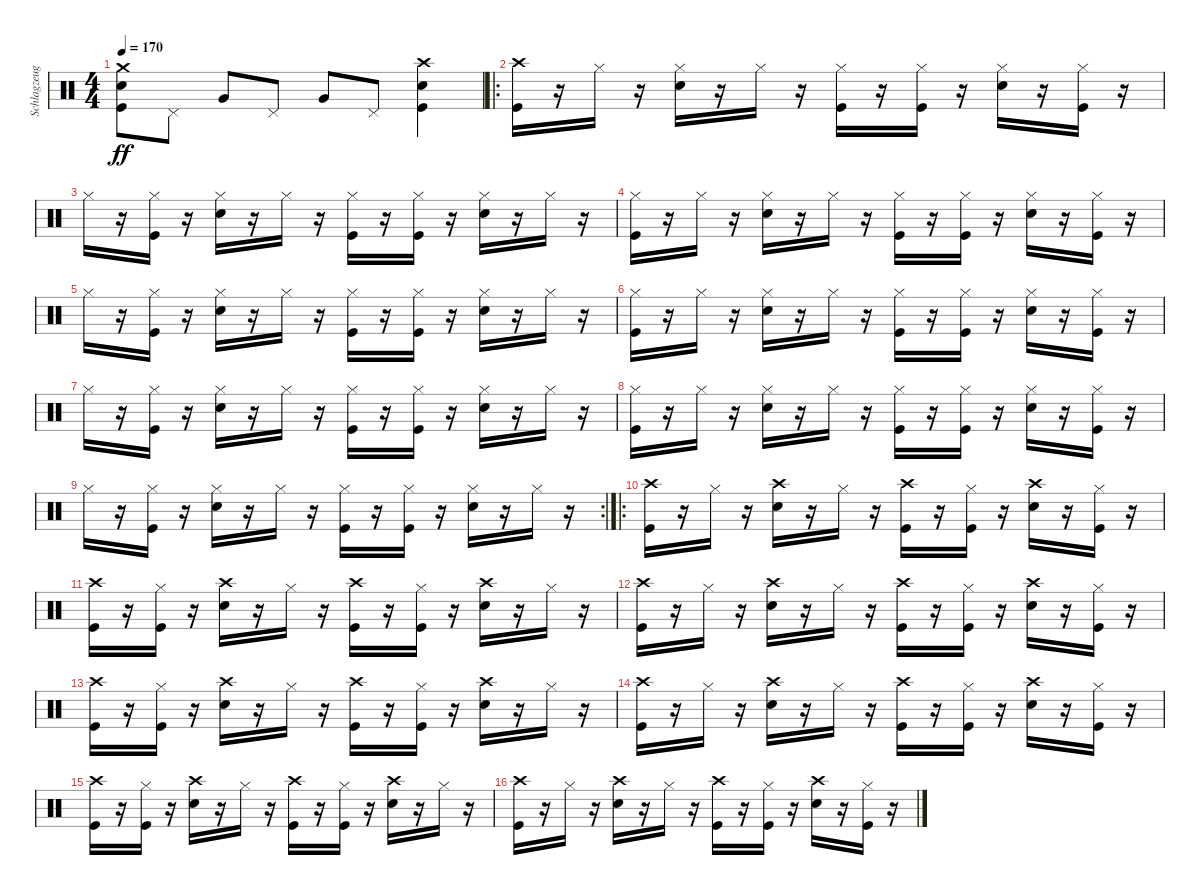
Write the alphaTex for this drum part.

\track ("Schlagzeug" "Schlagzeug") {instrument percussion}
\staff {score}
\articulation defaults
\ts (4 4)
\tempo 170
\clef neutral
\ks c
("Crash medium (hit)" "Snare (hit) 2" "Kick (hit)").8{dy ff} "Pedal Hi-Hat (hit)".8 "Very Low Tom (hit)".8 "Pedal Hi-Hat (hit)".8 "Very Low Tom (hit)".8 "Pedal Hi-Hat (hit)".8 ("Crash high (hit)" "Snare (hit) 2" "Kick (hit)").4 |
\ro
("Crash high (hit)" "Kick (hit)").16 r.16 "Hi-Hat (closed)".16 r.16 ("Hi-Hat (closed)" "Snare (hit) 2").16 r.16 "Hi-Hat (closed)".16 r.16 ("Hi-Hat (closed)" "Kick (hit)").16 r.16 ("Hi-Hat (closed)" "Kick (hit)").16 r.16 ("Hi-Hat (closed)" "Snare (hit) 2").16 r.16 ("Hi-Hat (closed)" "Kick (hit)").16 r.16 |
"Hi-Hat (closed)".16 r.16 ("Hi-Hat (closed)" "Kick (hit)").16 r.16 ("Hi-Hat (closed)" "Snare (hit) 2").16 r.16 "Hi-Hat (closed)".16 r.16 ("Hi-Hat (closed)" "Kick (hit)").16 r.16 ("Hi-Hat (closed)" "Kick (hit)").16 r.16 ("Hi-Hat (closed)" "Snare (hit) 2").16 r.16 "Hi-Hat (closed)".16 r.16 |
("Hi-Hat (closed)" "Kick (hit)").16 r.16 "Hi-Hat (closed)".16 r.16 ("Hi-Hat (closed)" "Snare (hit) 2").16 r.16 "Hi-Hat (closed)".16 r.16 ("Hi-Hat (closed)" "Kick (hit)").16 r.16 ("Hi-Hat (closed)" "Kick (hit)").16 r.16 ("Hi-Hat (closed)" "Snare (hit) 2").16 r.16 ("Hi-Hat (closed)" "Kick (hit)").16 r.16 |
"Hi-Hat (closed)".16 r.16 ("Hi-Hat (closed)" "Kick (hit)").16 r.16 ("Hi-Hat (closed)" "Snare (hit) 2").16 r.16 "Hi-Hat (closed)".16 r.16 ("Hi-Hat (closed)" "Kick (hit)").16 r.16 ("Hi-Hat (closed)" "Kick (hit)").16 r.16 ("Hi-Hat (closed)" "Snare (hit) 2").16 r.16 "Hi-Hat (closed)".16 r.16 |
("Hi-Hat (closed)" "Kick (hit)").16 r.16 "Hi-Hat (closed)".16 r.16 ("Hi-Hat (closed)" "Snare (hit) 2").16 r.16 "Hi-Hat (closed)".16 r.16 ("Hi-Hat (closed)" "Kick (hit)").16 r.16 ("Hi-Hat (closed)" "Kick (hit)").16 r.16 ("Hi-Hat (closed)" "Snare (hit) 2").16 r.16 ("Hi-Hat (closed)" "Kick (hit)").16 r.16 |
"Hi-Hat (closed)".16 r.16 ("Hi-Hat (closed)" "Kick (hit)").16 r.16 ("Hi-Hat (closed)" "Snare (hit) 2").16 r.16 "Hi-Hat (closed)".16 r.16 ("Hi-Hat (closed)" "Kick (hit)").16 r.16 ("Hi-Hat (closed)" "Kick (hit)").16 r.16 ("Hi-Hat (closed)" "Snare (hit) 2").16 r.16 "Hi-Hat (closed)".16 r.16 |
("Hi-Hat (closed)" "Kick (hit)").16 r.16 "Hi-Hat (closed)".16 r.16 ("Hi-Hat (closed)" "Snare (hit) 2").16 r.16 "Hi-Hat (closed)".16 r.16 ("Hi-Hat (closed)" "Kick (hit)").16 r.16 ("Hi-Hat (closed)" "Kick (hit)").16 r.16 ("Hi-Hat (closed)" "Snare (hit) 2").16 r.16 ("Hi-Hat (closed)" "Kick (hit)").16 r.16 |
\rc 2 "Hi-Hat (closed)".16
r.16 ("Hi-Hat (closed)" "Kick (hit)").16 r.16 ("Hi-Hat (closed)" "Snare (hit) 2").16 r.16 "Hi-Hat (closed)".16 r.16 ("Hi-Hat (closed)" "Kick (hit)").16 r.16 ("Hi-Hat (closed)" "Kick (hit)").16 r.16 ("Hi-Hat (closed)" "Snare (hit) 2").16 r.16 "Hi-Hat (closed)".16 r.16 |
\ro
("Crash high (hit)" "Kick (hit)").16 r.16 "Hi-Hat (closed)".16 r.16 ("Crash high (hit)" "Snare (hit) 2").16 r.16 "Hi-Hat (closed)".16 r.16 ("Crash high (hit)" "Kick (hit)").16 r.16 ("Hi-Hat (closed)" "Kick (hit)").16 r.16 ("Crash high (hit)" "Snare (hit) 2").16 r.16 ("Hi-Hat (closed)" "Kick (hit)").16 r.16 |
("Crash high (hit)" "Kick (hit)").16 r.16 ("Hi-Hat (closed)" "Kick (hit)").16 r.16 ("Crash high (hit)" "Snare (hit) 2").16 r.16 "Hi-Hat (closed)".16 r.16 ("Crash high (hit)" "Kick (hit)").16 r.16 ("Hi-Hat (closed)" "Kick (hit)").16 r.16 ("Crash high (hit)" "Snare (hit) 2").16 r.16 "Hi-Hat (closed)".16 r.16 |
("Crash high (hit)" "Kick (hit)").16 r.16 "Hi-Hat (closed)".16 r.16 ("Crash high (hit)" "Snare (hit) 2").16 r.16 "Hi-Hat (closed)".16 r.16 ("Crash high (hit)" "Kick (hit)").16 r.16 ("Hi-Hat (closed)" "Kick (hit)").16 r.16 ("Crash high (hit)" "Snare (hit) 2").16 r.16 ("Hi-Hat (closed)" "Kick (hit)").16 r.16 |
("Crash high (hit)" "Kick (hit)").16 r.16 ("Hi-Hat (closed)" "Kick (hit)").16 r.16 ("Crash high (hit)" "Snare (hit) 2").16 r.16 "Hi-Hat (closed)".16 r.16 ("Crash high (hit)" "Kick (hit)").16 r.16 ("Hi-Hat (closed)" "Kick (hit)").16 r.16 ("Crash high (hit)" "Snare (hit) 2").16 r.16 "Hi-Hat (closed)".16 r.16 |
("Crash high (hit)" "Kick (hit)").16 r.16 "Hi-Hat (closed)".16 r.16 ("Crash high (hit)" "Snare (hit) 2").16 r.16 "Hi-Hat (closed)".16 r.16 ("Crash high (hit)" "Kick (hit)").16 r.16 ("Hi-Hat (closed)" "Kick (hit)").16 r.16 ("Crash high (hit)" "Snare (hit) 2").16 r.16 ("Hi-Hat (closed)" "Kick (hit)").16 r.16 |
("Crash high (hit)" "Kick (hit)").16 r.16 ("Hi-Hat (closed)" "Kick (hit)").16 r.16 ("Crash high (hit)" "Snare (hit) 2").16 r.16 "Hi-Hat (closed)".16 r.16 ("Crash high (hit)" "Kick (hit)").16 r.16 ("Hi-Hat (closed)" "Kick (hit)").16 r.16 ("Crash high (hit)" "Snare (hit) 2").16 r.16 "Hi-Hat (closed)".16 r.16 |
("Crash high (hit)" "Kick (hit)").16 r.16 "Hi-Hat (closed)".16 r.16 ("Crash high (hit)" "Snare (hit) 2").16 r.16 "Hi-Hat (closed)".16 r.16 ("Crash high (hit)" "Kick (hit)").16 r.16 ("Hi-Hat (closed)" "Kick (hit)").16 r.16 ("Crash high (hit)" "Snare (hit) 2").16 r.16 ("Hi-Hat (closed)" "Kick (hit)").16 r.16
